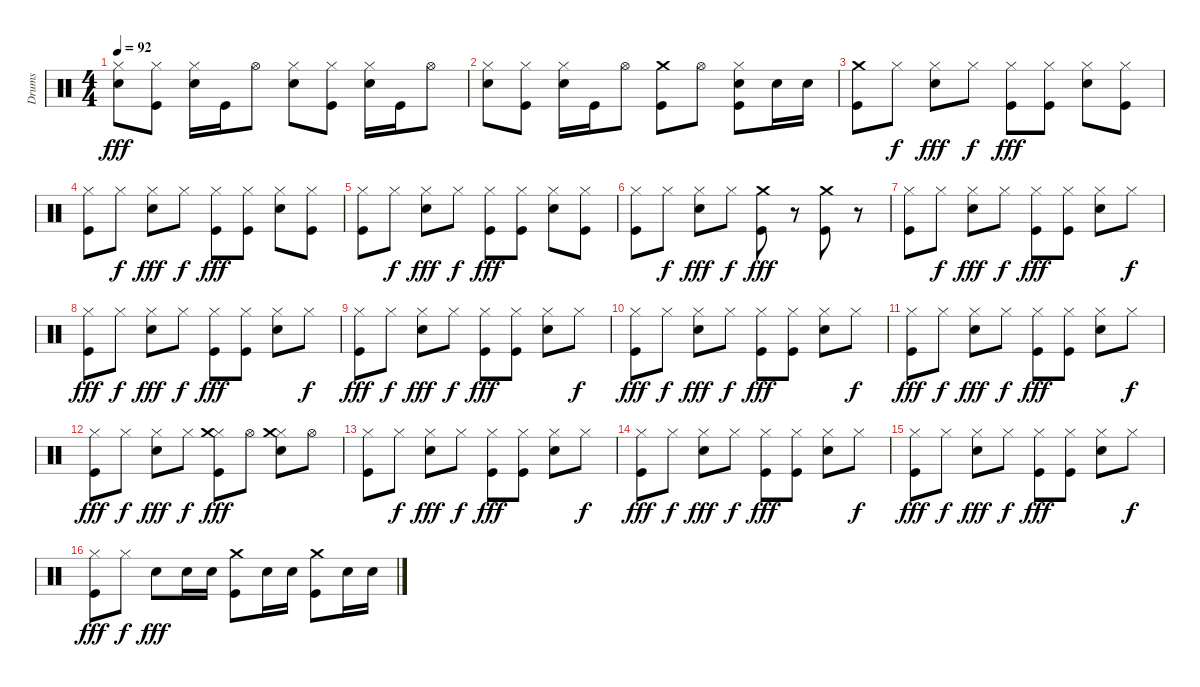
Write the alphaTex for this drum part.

\track ("Drums" "Drums") {instrument percussion}
\staff {score}
\articulation defaults
\ts (4 4)
\tempo 92
\clef neutral
\ks c
("Hi-Hat (closed)" "Snare (hit) 2").8{dy fff} ("Hi-Hat (closed)" "Kick (hit)").8 ("Hi-Hat (closed)" "Snare (hit) 2").16 "Kick (hit)".16 "Hi-Hat (open)".8 ("Hi-Hat (closed)" "Snare (hit) 2").8 ("Hi-Hat (closed)" "Kick (hit)").8 ("Hi-Hat (closed)" "Snare (hit) 2").16 "Kick (hit)".16 "Hi-Hat (open)".8 |
("Hi-Hat (closed)" "Snare (hit) 2").8 ("Hi-Hat (closed)" "Kick (hit)").8 ("Hi-Hat (closed)" "Snare (hit) 2").16 "Kick (hit)".16 "Hi-Hat (open)".8 ("Crash medium (hit)" "Kick (hit)").8 "Hi-Hat (open)".8 ("Hi-Hat (closed)" "Snare (hit) 2" "Kick (hit)").8 "Snare (hit) 2".16 "Snare (hit) 2".16 |
("Crash medium (hit)" "Kick (hit)").8 "Hi-Hat (closed)".8{dy f} ("Hi-Hat (closed)" "Snare (hit) 2").8{dy fff} "Hi-Hat (closed)".8{dy f} ("Hi-Hat (closed)" "Kick (hit)").8{dy fff} ("Hi-Hat (closed)" "Kick (hit)").8 ("Hi-Hat (closed)" "Snare (hit) 2").8 ("Hi-Hat (closed)" "Kick (hit)").8 |
("Hi-Hat (closed)" "Kick (hit)").8 "Hi-Hat (closed)".8{dy f} ("Hi-Hat (closed)" "Snare (hit) 2").8{dy fff} "Hi-Hat (closed)".8{dy f} ("Hi-Hat (closed)" "Kick (hit)").8{dy fff} ("Hi-Hat (closed)" "Kick (hit)").8 ("Hi-Hat (closed)" "Snare (hit) 2").8 ("Hi-Hat (closed)" "Kick (hit)").8 |
("Hi-Hat (closed)" "Kick (hit)").8 "Hi-Hat (closed)".8{dy f} ("Hi-Hat (closed)" "Snare (hit) 2").8{dy fff} "Hi-Hat (closed)".8{dy f} ("Hi-Hat (closed)" "Kick (hit)").8{dy fff} ("Hi-Hat (closed)" "Kick (hit)").8 ("Hi-Hat (closed)" "Snare (hit) 2").8 ("Hi-Hat (closed)" "Kick (hit)").8 |
("Hi-Hat (closed)" "Kick (hit)").8 "Hi-Hat (closed)".8{dy f} ("Hi-Hat (closed)" "Snare (hit) 2").8{dy fff} "Hi-Hat (closed)".8{dy f} ("Crash medium (hit)" "Kick (hit)").8{dy fff} r.8 ("Crash medium (hit)" "Kick (hit)").8 r.8 |
("Hi-Hat (closed)" "Kick (hit)").8 "Hi-Hat (closed)".8{dy f} ("Hi-Hat (closed)" "Snare (hit) 2").8{dy fff} "Hi-Hat (closed)".8{dy f} ("Hi-Hat (closed)" "Kick (hit)").8{dy fff} ("Hi-Hat (closed)" "Kick (hit)").8 ("Hi-Hat (closed)" "Snare (hit) 2").8 "Hi-Hat (closed)".8{dy f} |
("Hi-Hat (closed)" "Kick (hit)").8{dy fff} "Hi-Hat (closed)".8{dy f} ("Hi-Hat (closed)" "Snare (hit) 2").8{dy fff} "Hi-Hat (closed)".8{dy f} ("Hi-Hat (closed)" "Kick (hit)").8{dy fff} ("Hi-Hat (closed)" "Kick (hit)").8 ("Hi-Hat (closed)" "Snare (hit) 2").8 "Hi-Hat (closed)".8{dy f} |
("Hi-Hat (closed)" "Kick (hit)").8{dy fff} "Hi-Hat (closed)".8{dy f} ("Hi-Hat (closed)" "Snare (hit) 2").8{dy fff} "Hi-Hat (closed)".8{dy f} ("Hi-Hat (closed)" "Kick (hit)").8{dy fff} ("Hi-Hat (closed)" "Kick (hit)").8 ("Hi-Hat (closed)" "Snare (hit) 2").8 "Hi-Hat (closed)".8{dy f} |
("Hi-Hat (closed)" "Kick (hit)").8{dy fff} "Hi-Hat (closed)".8{dy f} ("Hi-Hat (closed)" "Snare (hit) 2").8{dy fff} "Hi-Hat (closed)".8{dy f} ("Hi-Hat (closed)" "Kick (hit)").8{dy fff} ("Hi-Hat (closed)" "Kick (hit)").8 ("Hi-Hat (closed)" "Snare (hit) 2").8 "Hi-Hat (closed)".8{dy f} |
("Hi-Hat (closed)" "Kick (hit)").8{dy fff} "Hi-Hat (closed)".8{dy f} ("Hi-Hat (closed)" "Snare (hit) 2").8{dy fff} "Hi-Hat (closed)".8{dy f} ("Hi-Hat (closed)" "Kick (hit)").8{dy fff} ("Hi-Hat (closed)" "Kick (hit)").8 ("Hi-Hat (closed)" "Snare (hit) 2").8 "Hi-Hat (closed)".8{dy f} |
("Hi-Hat (closed)" "Kick (hit)").8{dy fff} "Hi-Hat (closed)".8{dy f} ("Hi-Hat (closed)" "Snare (hit) 2").8{dy fff} "Hi-Hat (closed)".8{dy f} ("Hi-Hat (closed)" "Crash medium (hit)" "Kick (hit)").8{dy fff} "Hi-Hat (open)".8 ("Hi-Hat (closed)" "Crash medium (hit)" "Snare (hit) 2").8 "Hi-Hat (open)".8 |
("Hi-Hat (closed)" "Kick (hit)").8 "Hi-Hat (closed)".8{dy f} ("Hi-Hat (closed)" "Snare (hit) 2").8{dy fff} "Hi-Hat (closed)".8{dy f} ("Hi-Hat (closed)" "Kick (hit)").8{dy fff} ("Hi-Hat (closed)" "Kick (hit)").8 ("Hi-Hat (closed)" "Snare (hit) 2").8 "Hi-Hat (closed)".8{dy f} |
("Hi-Hat (closed)" "Kick (hit)").8{dy fff} "Hi-Hat (closed)".8{dy f} ("Hi-Hat (closed)" "Snare (hit) 2").8{dy fff} "Hi-Hat (closed)".8{dy f} ("Hi-Hat (closed)" "Kick (hit)").8{dy fff} ("Hi-Hat (closed)" "Kick (hit)").8 ("Hi-Hat (closed)" "Snare (hit) 2").8 "Hi-Hat (closed)".8{dy f} |
("Hi-Hat (closed)" "Kick (hit)").8{dy fff} "Hi-Hat (closed)".8{dy f} ("Hi-Hat (closed)" "Snare (hit) 2").8{dy fff} "Hi-Hat (closed)".8{dy f} ("Hi-Hat (closed)" "Kick (hit)").8{dy fff} ("Hi-Hat (closed)" "Kick (hit)").8 ("Hi-Hat (closed)" "Snare (hit) 2").8 "Hi-Hat (closed)".8{dy f} |
("Hi-Hat (closed)" "Kick (hit)").8{dy fff} "Hi-Hat (closed)".8{dy f} "Snare (hit) 2".8{dy fff} "Snare (hit) 2".16 "Snare (hit) 2".16 ("Crash medium (hit)" "Kick (hit)").8 "Snare (hit) 2".16 "Snare (hit) 2".16 ("Crash medium (hit)" "Kick (hit)").8 "Snare (hit) 2".16 "Snare (hit) 2".16
